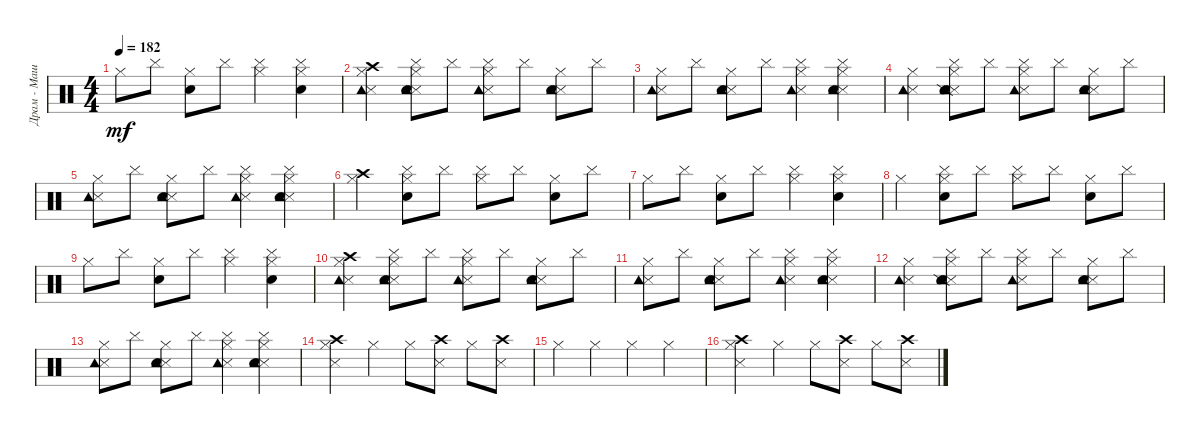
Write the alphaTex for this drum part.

\track ("Драм - Машина" "Драм - Маш") {instrument percussion}
\staff {score}
\articulation defaults
\ts (4 4)
\tempo 182
\clef neutral
\ks c "Hi-Hat (closed)".8{dy mf} "Cymbal (hit)".8
("Metronome (bell)" "Hi-Hat (closed)").8 "Cymbal (hit)".8 ("Hi-Hat (closed)" "Cymbal (hit)").4 ("Metronome (bell)" "Hi-Hat (closed)" "Cymbal (hit)").4 |
("Metronome (hit)" "Crash high (hit)" "Tambourine (hit)" "Hi-Hat (closed)").4 ("Metronome (hit)" "Metronome (bell)" "Cymbal (hit)" "Tambourine (hit)" "Hi-Hat (closed)").8 "Cymbal (hit)".8 ("Metronome (hit)" "Cymbal (hit)" "Hi-Hat (closed)" "Tambourine (hit)").8 "Cymbal (hit)".8 ("Metronome (hit)" "Metronome (bell)" "Tambourine (hit)" "Hi-Hat (closed)").8 "Cymbal (hit)".8 |
("Metronome (hit)" "Hi-Hat (closed)" "Tambourine (hit)").8 "Cymbal (hit)".8 ("Metronome (hit)" "Metronome (bell)" "Tambourine (hit)" "Hi-Hat (closed)").8 "Cymbal (hit)".8 ("Metronome (hit)" "Cymbal (hit)" "Hi-Hat (closed)" "Tambourine (hit)").4 ("Metronome (hit)" "Metronome (bell)" "Cymbal (hit)" "Hi-Hat (closed)" "Tambourine (hit)").4 |
("Metronome (hit)" "Hi-Hat (closed)" "Tambourine (hit)").4 ("Metronome (hit)" "Metronome (bell)" "Snare (side stick) 2" "Cymbal (hit)" "Tambourine (hit)" "Hi-Hat (closed)").8 "Cymbal (hit)".8 ("Metronome (hit)" "Cymbal (hit)" "Tambourine (hit)" "Hi-Hat (closed)").8 "Cymbal (hit)".8 ("Metronome (hit)" "Metronome (bell)" "Tambourine (hit)" "Hi-Hat (closed)").8 "Cymbal (hit)".8 |
("Metronome (hit)" "Tambourine (hit)" "Hi-Hat (closed)").8 "Cymbal (hit)".8 ("Metronome (hit)" "Metronome (bell)" "Hi-Hat (closed)" "Tambourine (hit)").8 "Cymbal (hit)".8 ("Metronome (hit)" "Cymbal (hit)" "Hi-Hat (closed)" "Tambourine (hit)").4 ("Metronome (hit)" "Metronome (bell)" "Cymbal (hit)" "Hi-Hat (closed)" "Tambourine (hit)").4 |
("Crash high (hit)" "Hi-Hat (closed)").4 ("Metronome (bell)" "Hi-Hat (closed)" "Cymbal (hit)").8 "Cymbal (hit)".8 ("Hi-Hat (closed)" "Cymbal (hit)").8 "Cymbal (hit)".8 ("Metronome (bell)" "Hi-Hat (closed)").8 "Cymbal (hit)".8 |
"Hi-Hat (closed)".8 "Cymbal (hit)".8 ("Metronome (bell)" "Hi-Hat (closed)").8 "Cymbal (hit)".8 ("Hi-Hat (closed)" "Cymbal (hit)").4 ("Metronome (bell)" "Hi-Hat (closed)" "Cymbal (hit)").4 |
"Hi-Hat (closed)".4 ("Metronome (bell)" "Hi-Hat (closed)" "Cymbal (hit)").8 "Cymbal (hit)".8 ("Hi-Hat (closed)" "Cymbal (hit)").8 "Cymbal (hit)".8 ("Metronome (bell)" "Hi-Hat (closed)").8 "Cymbal (hit)".8 |
"Hi-Hat (closed)".8 "Cymbal (hit)".8 ("Metronome (bell)" "Hi-Hat (closed)").8 "Cymbal (hit)".8 ("Hi-Hat (closed)" "Cymbal (hit)").4 ("Metronome (bell)" "Hi-Hat (closed)" "Cymbal (hit)").4 |
("Metronome (hit)" "Crash high (hit)" "Tambourine (hit)" "Hi-Hat (closed)").4 ("Metronome (hit)" "Metronome (bell)" "Tambourine (hit)" "Hi-Hat (closed)" "Cymbal (hit)").8 "Cymbal (hit)".8 ("Metronome (hit)" "Tambourine (hit)" "Hi-Hat (closed)" "Cymbal (hit)").8 "Cymbal (hit)".8 ("Metronome (hit)" "Metronome (bell)" "Hi-Hat (closed)" "Tambourine (hit)").8 "Cymbal (hit)".8 |
("Metronome (hit)" "Hi-Hat (closed)" "Tambourine (hit)").8 "Cymbal (hit)".8 ("Metronome (hit)" "Metronome (bell)" "Tambourine (hit)" "Hi-Hat (closed)").8 "Cymbal (hit)".8 ("Metronome (hit)" "Cymbal (hit)" "Hi-Hat (closed)" "Tambourine (hit)").4 ("Metronome (hit)" "Metronome (bell)" "Cymbal (hit)" "Hi-Hat (closed)" "Tambourine (hit)").4 |
("Metronome (hit)" "Hi-Hat (closed)" "Tambourine (hit)").4 ("Metronome (hit)" "Metronome (bell)" "Snare (side stick) 2" "Cymbal (hit)" "Hi-Hat (closed)" "Tambourine (hit)").8 "Cymbal (hit)".8 ("Metronome (hit)" "Cymbal (hit)" "Tambourine (hit)" "Hi-Hat (closed)").8 "Cymbal (hit)".8 ("Metronome (hit)" "Metronome (bell)" "Tambourine (hit)" "Hi-Hat (closed)").8 "Cymbal (hit)".8 |
("Metronome (hit)" "Tambourine (hit)" "Hi-Hat (closed)").8 "Cymbal (hit)".8 ("Metronome (hit)" "Metronome (bell)" "Hi-Hat (closed)" "Tambourine (hit)").8 "Cymbal (hit)".8 ("Metronome (hit)" "Cymbal (hit)" "Tambourine (hit)" "Hi-Hat (closed)").4 ("Metronome (hit)" "Metronome (bell)" "Cymbal (hit)" "Hi-Hat (closed)" "Tambourine (hit)").4 |
("Crash high (hit)" "Metronome (hit)" "Hi-Hat (closed)").4 "Hi-Hat (closed)".4 "Hi-Hat (closed)".8 ("Crash high (hit)" "Metronome (hit)").8 "Hi-Hat (closed)".8 ("Crash high (hit)" "Metronome (hit)").8 |
"Hi-Hat (closed)".4 "Hi-Hat (closed)".4 "Hi-Hat (closed)".4 "Hi-Hat (closed)".4 |
("Crash high (hit)" "Metronome (hit)" "Hi-Hat (closed)").4 "Hi-Hat (closed)".4 "Hi-Hat (closed)".8 ("Crash high (hit)" "Metronome (hit)").8 "Hi-Hat (closed)".8 ("Metronome (hit)" "Crash high (hit)").8
